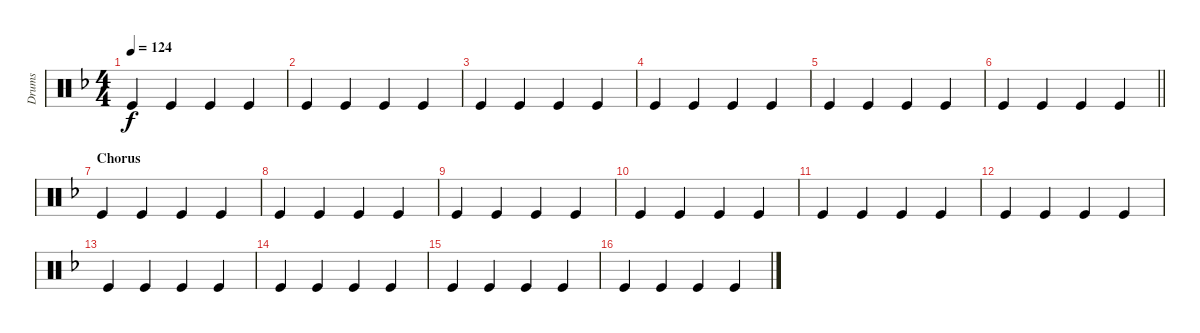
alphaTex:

\track ("Drums" "Drums") {instrument percussion}
\staff {score}
\articulation defaults
\ts (4 4)
\tempo 124
\clef neutral
\ks f "Kick (hit)".4{dy f} "Kick (hit)".4 "Kick (hit)".4 "Kick (hit)".4
|
"Kick (hit)".4 "Kick (hit)".4 "Kick (hit)".4 "Kick (hit)".4 |
"Kick (hit)".4 "Kick (hit)".4 "Kick (hit)".4 "Kick (hit)".4 |
"Kick (hit)".4 "Kick (hit)".4 "Kick (hit)".4 "Kick (hit)".4 |
"Kick (hit)".4 "Kick (hit)".4 "Kick (hit)".4 "Kick (hit)".4 |
\barLineRight lightlight "Kick (hit)".4 "Kick (hit)".4 "Kick (hit)".4 "Kick (hit)".4
|
\section ("" "Chorus")
"Kick (hit)".4 "Kick (hit)".4 "Kick (hit)".4 "Kick (hit)".4 |
"Kick (hit)".4 "Kick (hit)".4 "Kick (hit)".4 "Kick (hit)".4 |
"Kick (hit)".4 "Kick (hit)".4 "Kick (hit)".4 "Kick (hit)".4 |
"Kick (hit)".4 "Kick (hit)".4 "Kick (hit)".4 "Kick (hit)".4 |
"Kick (hit)".4 "Kick (hit)".4 "Kick (hit)".4 "Kick (hit)".4 |
"Kick (hit)".4 "Kick (hit)".4 "Kick (hit)".4 "Kick (hit)".4 |
"Kick (hit)".4 "Kick (hit)".4 "Kick (hit)".4 "Kick (hit)".4 |
"Kick (hit)".4 "Kick (hit)".4 "Kick (hit)".4 "Kick (hit)".4 |
"Kick (hit)".4 "Kick (hit)".4 "Kick (hit)".4 "Kick (hit)".4 |
"Kick (hit)".4 "Kick (hit)".4 "Kick (hit)".4 "Kick (hit)".4
